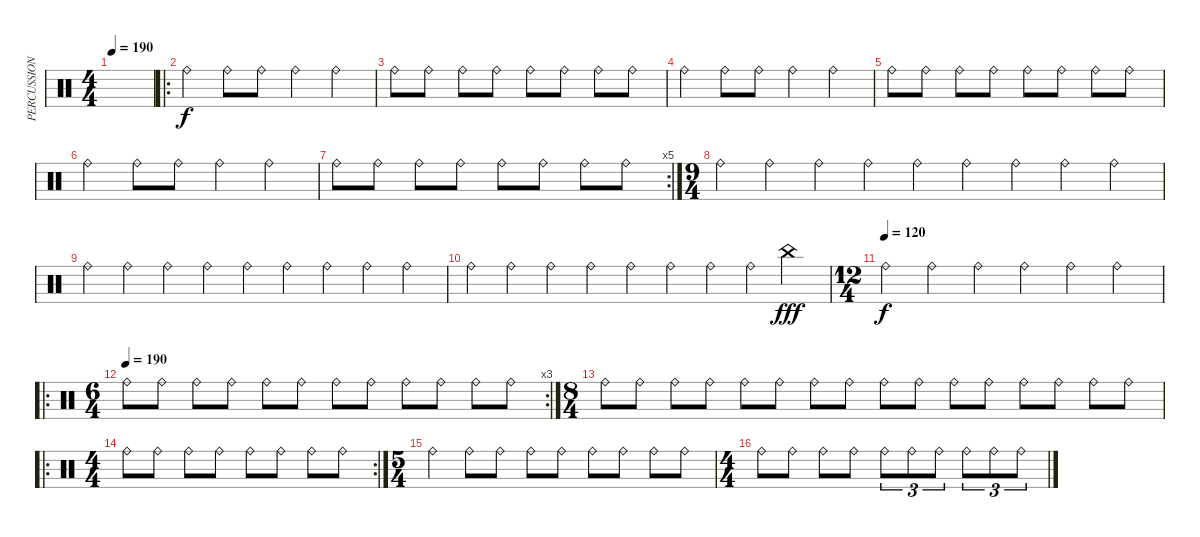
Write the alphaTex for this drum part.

\track ("PERCUSSION" "PERCUSSION") {instrument percussion}
\staff {score}
\articulation defaults
\ts (4 4)
\tempo 190
\clef neutral
\ks c
|
\ro "Ride (bell)".4 "Ride (bell)".8 "Ride (bell)".8 "Ride (bell)".4 "Ride (bell)".4
|
"Ride (bell)".8 "Ride (bell)".8 "Ride (bell)".8 "Ride (bell)".8 "Ride (bell)".8 "Ride (bell)".8 "Ride (bell)".8 "Ride (bell)".8 |
"Ride (bell)".4 "Ride (bell)".8 "Ride (bell)".8 "Ride (bell)".4 "Ride (bell)".4 |
"Ride (bell)".8 "Ride (bell)".8 "Ride (bell)".8 "Ride (bell)".8 "Ride (bell)".8 "Ride (bell)".8 "Ride (bell)".8 "Ride (bell)".8 |
"Ride (bell)".4 "Ride (bell)".8 "Ride (bell)".8 "Ride (bell)".4 "Ride (bell)".4 |
\rc 5 "Ride (bell)".8 "Ride (bell)".8 "Ride (bell)".8 "Ride (bell)".8 "Ride (bell)".8 "Ride (bell)".8 "Ride (bell)".8 "Ride (bell)".8
|
\ts (9 4)
"Ride (bell)".4 "Ride (bell)".4 "Ride (bell)".4 "Ride (bell)".4 "Ride (bell)".4 "Ride (bell)".4 "Ride (bell)".4 "Ride (bell)".4 "Ride (bell)".4 |
"Ride (bell)".4 "Ride (bell)".4 "Ride (bell)".4 "Ride (bell)".4 "Ride (bell)".4 "Ride (bell)".4 "Ride (bell)".4 "Ride (bell)".4 "Ride (bell)".4 |
"Ride (bell)".4 "Ride (bell)".4 "Ride (bell)".4 "Ride (bell)".4 "Ride (bell)".4 "Ride (bell)".4 "Ride (bell)".4 "Ride (bell)".4 "China (hit)".4{dy fff} |
\ts (12 4)
\tempo (120)
"Ride (bell)".2{dy f} "Ride (bell)".2 "Ride (bell)".2 "Ride (bell)".2 "Ride (bell)".2 "Ride (bell)".2 |
\ro
\rc 3
\ts (6 4)
\tempo (190)
"Ride (bell)".8 "Ride (bell)".8 "Ride (bell)".8 "Ride (bell)".8 "Ride (bell)".8 "Ride (bell)".8 "Ride (bell)".8 "Ride (bell)".8 "Ride (bell)".8 "Ride (bell)".8 "Ride (bell)".8 "Ride (bell)".8 |
\ts (8 4)
"Ride (bell)".8 "Ride (bell)".8 "Ride (bell)".8 "Ride (bell)".8 "Ride (bell)".8 "Ride (bell)".8 "Ride (bell)".8 "Ride (bell)".8 "Ride (bell)".8 "Ride (bell)".8 "Ride (bell)".8 "Ride (bell)".8 "Ride (bell)".8 "Ride (bell)".8 "Ride (bell)".8 "Ride (bell)".8 |
\ro
\rc 2
\ts (4 4)
"Ride (bell)".8 "Ride (bell)".8 "Ride (bell)".8 "Ride (bell)".8 "Ride (bell)".8 "Ride (bell)".8 "Ride (bell)".8 "Ride (bell)".8 |
\ts (5 4)
"Ride (bell)".4 "Ride (bell)".8 "Ride (bell)".8 "Ride (bell)".8 "Ride (bell)".8 "Ride (bell)".8 "Ride (bell)".8 "Ride (bell)".8 "Ride (bell)".8 |
\ts (4 4)
"Ride (bell)".8 "Ride (bell)".8 "Ride (bell)".8 "Ride (bell)".8 "Ride (bell)".8{tu (3 2)} "Ride (bell)".8{tu (3 2)} "Ride (bell)".8{tu (3 2)} "Ride (bell)".8{tu (3 2)} "Ride (bell)".8{tu (3 2)} "Ride (bell)".8{tu (3 2)}
